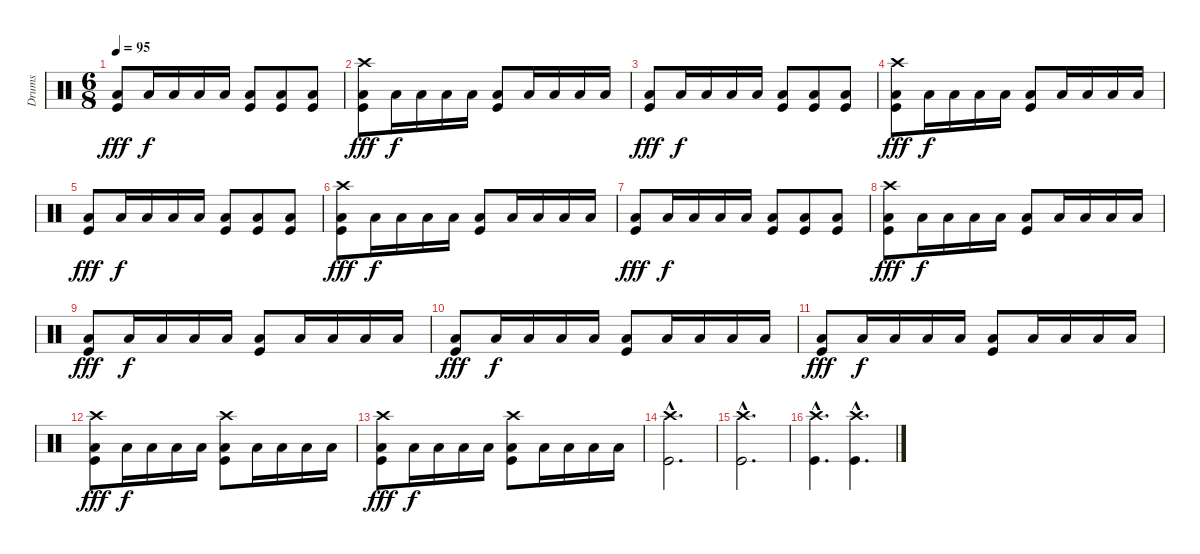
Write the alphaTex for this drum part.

\track ("Drums" "Drums") {instrument percussion}
\staff {score}
\articulation defaults
\ts (6 8)
\tempo 95
\clef neutral
\ks c
("Low Tom (hit)" "Kick (hit)").8{dy fff} "Low Tom (hit)".16{dy f} "Low Tom (hit)".16 "Low Tom (hit)".16 "Low Tom (hit)".16 ("Low Tom (hit)" "Kick (hit)").8 ("Low Tom (hit)" "Kick (hit)").8 ("Low Tom (hit)" "Kick (hit)").8 |
("Crash high (hit)" "Low Tom (hit)" "Kick (hit)").8{dy fff} "Low Tom (hit)".16{dy f} "Low Tom (hit)".16 "Low Tom (hit)".16 "Low Tom (hit)".16 ("Low Tom (hit)" "Kick (hit)").8 "Low Tom (hit)".16 "Low Tom (hit)".16 "Low Tom (hit)".16 "Low Tom (hit)".16 |
("Low Tom (hit)" "Kick (hit)").8{dy fff} "Low Tom (hit)".16{dy f} "Low Tom (hit)".16 "Low Tom (hit)".16 "Low Tom (hit)".16 ("Low Tom (hit)" "Kick (hit)").8 ("Low Tom (hit)" "Kick (hit)").8 ("Low Tom (hit)" "Kick (hit)").8 |
("Crash high (hit)" "Low Tom (hit)" "Kick (hit)").8{dy fff} "Low Tom (hit)".16{dy f} "Low Tom (hit)".16 "Low Tom (hit)".16 "Low Tom (hit)".16 ("Low Tom (hit)" "Kick (hit)").8 "Low Tom (hit)".16 "Low Tom (hit)".16 "Low Tom (hit)".16 "Low Tom (hit)".16 |
("Low Tom (hit)" "Kick (hit)").8{dy fff} "Low Tom (hit)".16{dy f} "Low Tom (hit)".16 "Low Tom (hit)".16 "Low Tom (hit)".16 ("Low Tom (hit)" "Kick (hit)").8 ("Low Tom (hit)" "Kick (hit)").8 ("Low Tom (hit)" "Kick (hit)").8 |
("Crash high (hit)" "Low Tom (hit)" "Kick (hit)").8{dy fff} "Low Tom (hit)".16{dy f} "Low Tom (hit)".16 "Low Tom (hit)".16 "Low Tom (hit)".16 ("Low Tom (hit)" "Kick (hit)").8 "Low Tom (hit)".16 "Low Tom (hit)".16 "Low Tom (hit)".16 "Low Tom (hit)".16 |
("Low Tom (hit)" "Kick (hit)").8{dy fff} "Low Tom (hit)".16{dy f} "Low Tom (hit)".16 "Low Tom (hit)".16 "Low Tom (hit)".16 ("Low Tom (hit)" "Kick (hit)").8 ("Low Tom (hit)" "Kick (hit)").8 ("Low Tom (hit)" "Kick (hit)").8 |
("Crash high (hit)" "Low Tom (hit)" "Kick (hit)").8{dy fff} "Low Tom (hit)".16{dy f} "Low Tom (hit)".16 "Low Tom (hit)".16 "Low Tom (hit)".16 ("Low Tom (hit)" "Kick (hit)").8 "Low Tom (hit)".16 "Low Tom (hit)".16 "Low Tom (hit)".16 "Low Tom (hit)".16 |
("Low Tom (hit)" "Kick (hit)").8{dy fff} "Low Tom (hit)".16{dy f} "Low Tom (hit)".16 "Low Tom (hit)".16 "Low Tom (hit)".16 ("Low Tom (hit)" "Kick (hit)").8 "Low Tom (hit)".16 "Low Tom (hit)".16 "Low Tom (hit)".16 "Low Tom (hit)".16 |
("Low Tom (hit)" "Kick (hit)").8{dy fff} "Low Tom (hit)".16{dy f} "Low Tom (hit)".16 "Low Tom (hit)".16 "Low Tom (hit)".16 ("Low Tom (hit)" "Kick (hit)").8 "Low Tom (hit)".16 "Low Tom (hit)".16 "Low Tom (hit)".16 "Low Tom (hit)".16 |
("Low Tom (hit)" "Kick (hit)").8{dy fff} "Low Tom (hit)".16{dy f} "Low Tom (hit)".16 "Low Tom (hit)".16 "Low Tom (hit)".16 ("Low Tom (hit)" "Kick (hit)").8 "Low Tom (hit)".16 "Low Tom (hit)".16 "Low Tom (hit)".16 "Low Tom (hit)".16 |
("Crash high (hit)" "Low Tom (hit)" "Kick (hit)").8{dy fff} "Low Tom (hit)".16{dy f} "Low Tom (hit)".16 "Low Tom (hit)".16 "Low Tom (hit)".16 ("Crash high (hit)" "Low Tom (hit)" "Kick (hit)").8 "Low Tom (hit)".16 "Low Tom (hit)".16 "Low Tom (hit)".16 "Low Tom (hit)".16 |
("Crash high (hit)" "Low Tom (hit)" "Kick (hit)").8{dy fff} "Low Tom (hit)".16{dy f} "Low Tom (hit)".16 "Low Tom (hit)".16 "Low Tom (hit)".16 ("Crash high (hit)" "Low Tom (hit)" "Kick (hit)").8 "Low Tom (hit)".16 "Low Tom (hit)".16 "Low Tom (hit)".16 "Low Tom (hit)".16 |
("Crash high (hit)"{hac} "Kick (hit)"{hac}).2{d} |
("Crash high (hit)"{hac} "Kick (hit)"{hac}).2{d} |
("Crash high (hit)"{hac} "Kick (hit)"{hac}).4{d} ("Crash high (hit)"{hac} "Kick (hit)"{hac}).4{d}
